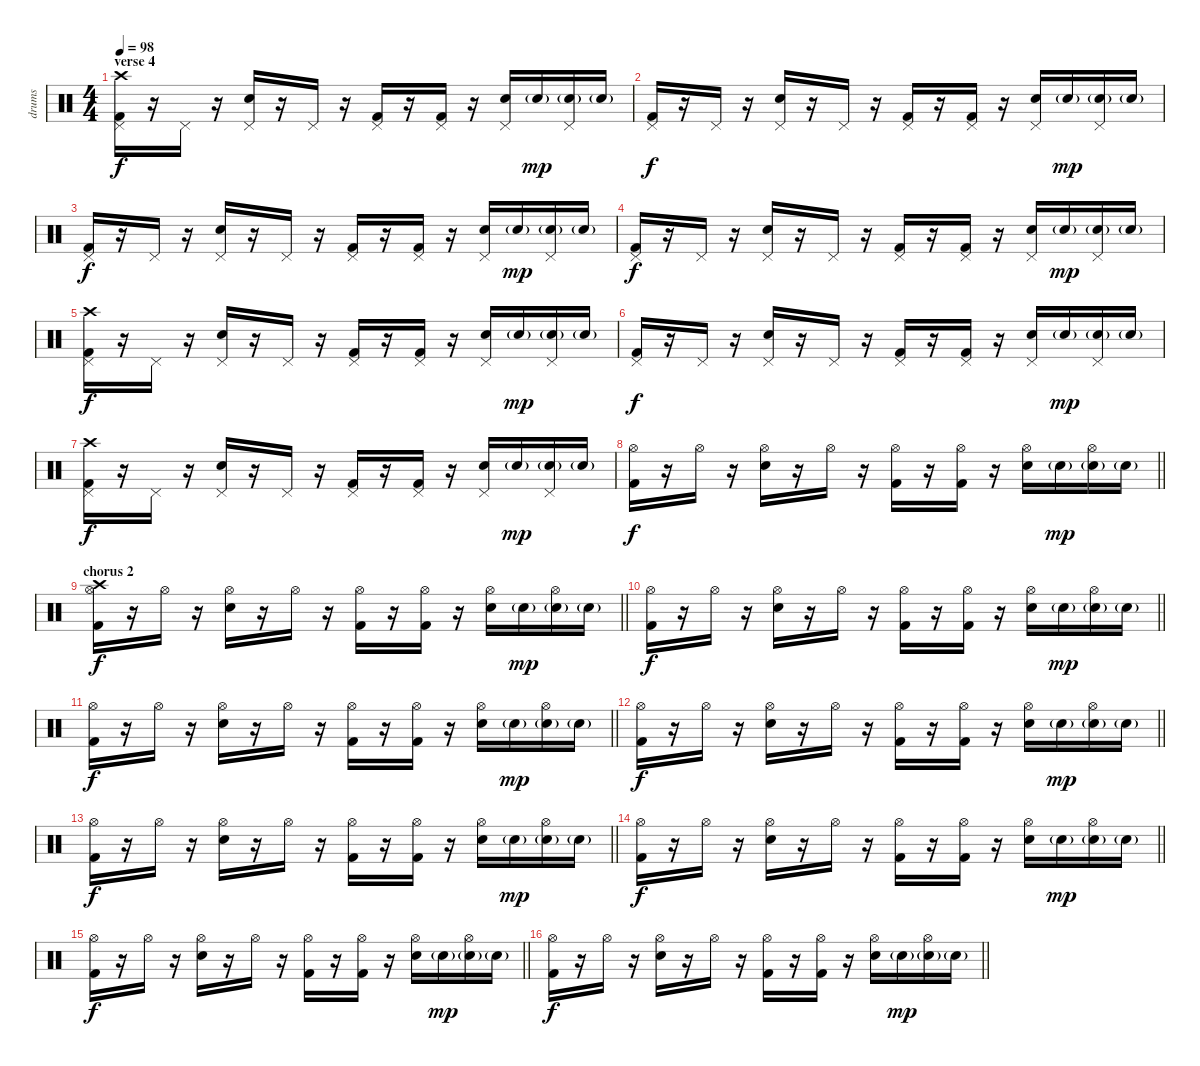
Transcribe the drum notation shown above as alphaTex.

\track ("drums" "drums") {instrument percussion}
\staff {score}
\articulation defaults
\ts (4 4)
\section ("" "verse 4")
\tempo 98
\clef neutral
\ks c
("Kick (hit) 2" "Pedal Hi-Hat (hit)" "Crash high (hit)").16{dy f} r.16 "Pedal Hi-Hat (hit)".16 r.16 ("Electric Snare (hit)" "Pedal Hi-Hat (hit)").16 r.16 "Pedal Hi-Hat (hit)".16 r.16 ("Kick (hit) 2" "Pedal Hi-Hat (hit)").16 r.16 ("Kick (hit) 2" "Pedal Hi-Hat (hit)").16 r.16 ("Electric Snare (hit)" "Pedal Hi-Hat (hit)").16 "Electric Snare (hit)"{g}.16{dy mp} ("Electric Snare (hit)"{g} "Pedal Hi-Hat (hit)").16 "Electric Snare (hit)"{g}.16 |
("Kick (hit) 2" "Pedal Hi-Hat (hit)").16{dy f} r.16 "Pedal Hi-Hat (hit)".16 r.16 ("Electric Snare (hit)" "Pedal Hi-Hat (hit)").16 r.16 "Pedal Hi-Hat (hit)".16 r.16 ("Kick (hit) 2" "Pedal Hi-Hat (hit)").16 r.16 ("Kick (hit) 2" "Pedal Hi-Hat (hit)").16 r.16 ("Electric Snare (hit)" "Pedal Hi-Hat (hit)").16 "Electric Snare (hit)"{g}.16{dy mp} ("Electric Snare (hit)"{g} "Pedal Hi-Hat (hit)").16 "Electric Snare (hit)"{g}.16 |
("Kick (hit) 2" "Pedal Hi-Hat (hit)").16{dy f} r.16 "Pedal Hi-Hat (hit)".16 r.16 ("Electric Snare (hit)" "Pedal Hi-Hat (hit)").16 r.16 "Pedal Hi-Hat (hit)".16 r.16 ("Kick (hit) 2" "Pedal Hi-Hat (hit)").16 r.16 ("Kick (hit) 2" "Pedal Hi-Hat (hit)").16 r.16 ("Electric Snare (hit)" "Pedal Hi-Hat (hit)").16 "Electric Snare (hit)"{g}.16{dy mp} ("Electric Snare (hit)"{g} "Pedal Hi-Hat (hit)").16 "Electric Snare (hit)"{g}.16 |
("Kick (hit) 2" "Pedal Hi-Hat (hit)").16{dy f} r.16 "Pedal Hi-Hat (hit)".16 r.16 ("Electric Snare (hit)" "Pedal Hi-Hat (hit)").16 r.16 "Pedal Hi-Hat (hit)".16 r.16 ("Kick (hit) 2" "Pedal Hi-Hat (hit)").16 r.16 ("Kick (hit) 2" "Pedal Hi-Hat (hit)").16 r.16 ("Electric Snare (hit)" "Pedal Hi-Hat (hit)").16 "Electric Snare (hit)"{g}.16{dy mp} ("Electric Snare (hit)"{g} "Pedal Hi-Hat (hit)").16 "Electric Snare (hit)"{g}.16 |
("Kick (hit) 2" "Pedal Hi-Hat (hit)" "Crash high (hit)").16{dy f} r.16 "Pedal Hi-Hat (hit)".16 r.16 ("Electric Snare (hit)" "Pedal Hi-Hat (hit)").16 r.16 "Pedal Hi-Hat (hit)".16 r.16 ("Kick (hit) 2" "Pedal Hi-Hat (hit)").16 r.16 ("Kick (hit) 2" "Pedal Hi-Hat (hit)").16 r.16 ("Electric Snare (hit)" "Pedal Hi-Hat (hit)").16 "Electric Snare (hit)"{g}.16{dy mp} ("Electric Snare (hit)"{g} "Pedal Hi-Hat (hit)").16 "Electric Snare (hit)"{g}.16 |
("Kick (hit) 2" "Pedal Hi-Hat (hit)").16{dy f} r.16 "Pedal Hi-Hat (hit)".16 r.16 ("Electric Snare (hit)" "Pedal Hi-Hat (hit)").16 r.16 "Pedal Hi-Hat (hit)".16 r.16 ("Kick (hit) 2" "Pedal Hi-Hat (hit)").16 r.16 ("Kick (hit) 2" "Pedal Hi-Hat (hit)").16 r.16 ("Electric Snare (hit)" "Pedal Hi-Hat (hit)").16 "Electric Snare (hit)"{g}.16{dy mp} ("Electric Snare (hit)"{g} "Pedal Hi-Hat (hit)").16 "Electric Snare (hit)"{g}.16 |
("Kick (hit) 2" "Pedal Hi-Hat (hit)" "Crash high (hit)").16{dy f} r.16 "Pedal Hi-Hat (hit)".16 r.16 ("Electric Snare (hit)" "Pedal Hi-Hat (hit)").16 r.16 "Pedal Hi-Hat (hit)".16 r.16 ("Kick (hit) 2" "Pedal Hi-Hat (hit)").16 r.16 ("Kick (hit) 2" "Pedal Hi-Hat (hit)").16 r.16 ("Electric Snare (hit)" "Pedal Hi-Hat (hit)").16 "Electric Snare (hit)"{g}.16{dy mp} ("Electric Snare (hit)"{g} "Pedal Hi-Hat (hit)").16 "Electric Snare (hit)"{g}.16 |
\barLineRight lightlight
("Kick (hit) 2" "Hi-Hat (open)").16{dy f} r.16 "Hi-Hat (open)".16 r.16 ("Electric Snare (hit)" "Hi-Hat (open)").16 r.16 "Hi-Hat (open)".16 r.16 ("Kick (hit) 2" "Hi-Hat (open)").16 r.16 ("Kick (hit) 2" "Hi-Hat (open)").16 r.16 ("Electric Snare (hit)" "Hi-Hat (open)").16 "Electric Snare (hit)"{g}.16{dy mp} ("Electric Snare (hit)"{g} "Hi-Hat (open)").16 "Electric Snare (hit)"{g}.16 |
\section ("" "chorus 2")
\barLineRight lightlight
("Kick (hit) 2" "Hi-Hat (open)" "Crash high (hit)").16{dy f} r.16 "Hi-Hat (open)".16 r.16 ("Electric Snare (hit)" "Hi-Hat (open)").16 r.16 "Hi-Hat (open)".16 r.16 ("Kick (hit) 2" "Hi-Hat (open)").16 r.16 ("Kick (hit) 2" "Hi-Hat (open)").16 r.16 ("Electric Snare (hit)" "Hi-Hat (open)").16 "Electric Snare (hit)"{g}.16{dy mp} ("Electric Snare (hit)"{g} "Hi-Hat (open)").16 "Electric Snare (hit)"{g}.16 |
\barLineRight lightlight
("Kick (hit) 2" "Hi-Hat (open)").16{dy f} r.16 "Hi-Hat (open)".16 r.16 ("Electric Snare (hit)" "Hi-Hat (open)").16 r.16 "Hi-Hat (open)".16 r.16 ("Kick (hit) 2" "Hi-Hat (open)").16 r.16 ("Kick (hit) 2" "Hi-Hat (open)").16 r.16 ("Electric Snare (hit)" "Hi-Hat (open)").16 "Electric Snare (hit)"{g}.16{dy mp} ("Electric Snare (hit)"{g} "Hi-Hat (open)").16 "Electric Snare (hit)"{g}.16 |
\barLineRight lightlight
("Kick (hit) 2" "Hi-Hat (open)").16{dy f} r.16 "Hi-Hat (open)".16 r.16 ("Electric Snare (hit)" "Hi-Hat (open)").16 r.16 "Hi-Hat (open)".16 r.16 ("Kick (hit) 2" "Hi-Hat (open)").16 r.16 ("Kick (hit) 2" "Hi-Hat (open)").16 r.16 ("Electric Snare (hit)" "Hi-Hat (open)").16 "Electric Snare (hit)"{g}.16{dy mp} ("Electric Snare (hit)"{g} "Hi-Hat (open)").16 "Electric Snare (hit)"{g}.16 |
\barLineRight lightlight
("Kick (hit) 2" "Hi-Hat (open)").16{dy f} r.16 "Hi-Hat (open)".16 r.16 ("Electric Snare (hit)" "Hi-Hat (open)").16 r.16 "Hi-Hat (open)".16 r.16 ("Kick (hit) 2" "Hi-Hat (open)").16 r.16 ("Kick (hit) 2" "Hi-Hat (open)").16 r.16 ("Electric Snare (hit)" "Hi-Hat (open)").16 "Electric Snare (hit)"{g}.16{dy mp} ("Electric Snare (hit)"{g} "Hi-Hat (open)").16 "Electric Snare (hit)"{g}.16 |
\barLineRight lightlight
("Kick (hit) 2" "Hi-Hat (open)").16{dy f} r.16 "Hi-Hat (open)".16 r.16 ("Electric Snare (hit)" "Hi-Hat (open)").16 r.16 "Hi-Hat (open)".16 r.16 ("Kick (hit) 2" "Hi-Hat (open)").16 r.16 ("Kick (hit) 2" "Hi-Hat (open)").16 r.16 ("Electric Snare (hit)" "Hi-Hat (open)").16 "Electric Snare (hit)"{g}.16{dy mp} ("Electric Snare (hit)"{g} "Hi-Hat (open)").16 "Electric Snare (hit)"{g}.16 |
\barLineRight lightlight
("Kick (hit) 2" "Hi-Hat (open)").16{dy f} r.16 "Hi-Hat (open)".16 r.16 ("Electric Snare (hit)" "Hi-Hat (open)").16 r.16 "Hi-Hat (open)".16 r.16 ("Kick (hit) 2" "Hi-Hat (open)").16 r.16 ("Kick (hit) 2" "Hi-Hat (open)").16 r.16 ("Electric Snare (hit)" "Hi-Hat (open)").16 "Electric Snare (hit)"{g}.16{dy mp} ("Electric Snare (hit)"{g} "Hi-Hat (open)").16 "Electric Snare (hit)"{g}.16 |
\barLineRight lightlight
("Kick (hit) 2" "Hi-Hat (open)").16{dy f} r.16 "Hi-Hat (open)".16 r.16 ("Electric Snare (hit)" "Hi-Hat (open)").16 r.16 "Hi-Hat (open)".16 r.16 ("Kick (hit) 2" "Hi-Hat (open)").16 r.16 ("Kick (hit) 2" "Hi-Hat (open)").16 r.16 ("Electric Snare (hit)" "Hi-Hat (open)").16 "Electric Snare (hit)"{g}.16{dy mp} ("Electric Snare (hit)"{g} "Hi-Hat (open)").16 "Electric Snare (hit)"{g}.16 |
\barLineRight lightlight
("Kick (hit) 2" "Hi-Hat (open)").16{dy f} r.16 "Hi-Hat (open)".16 r.16 ("Electric Snare (hit)" "Hi-Hat (open)").16 r.16 "Hi-Hat (open)".16 r.16 ("Kick (hit) 2" "Hi-Hat (open)").16 r.16 ("Kick (hit) 2" "Hi-Hat (open)").16 r.16 ("Electric Snare (hit)" "Hi-Hat (open)").16 "Electric Snare (hit)"{g}.16{dy mp} ("Electric Snare (hit)"{g} "Hi-Hat (open)").16 "Electric Snare (hit)"{g}.16
